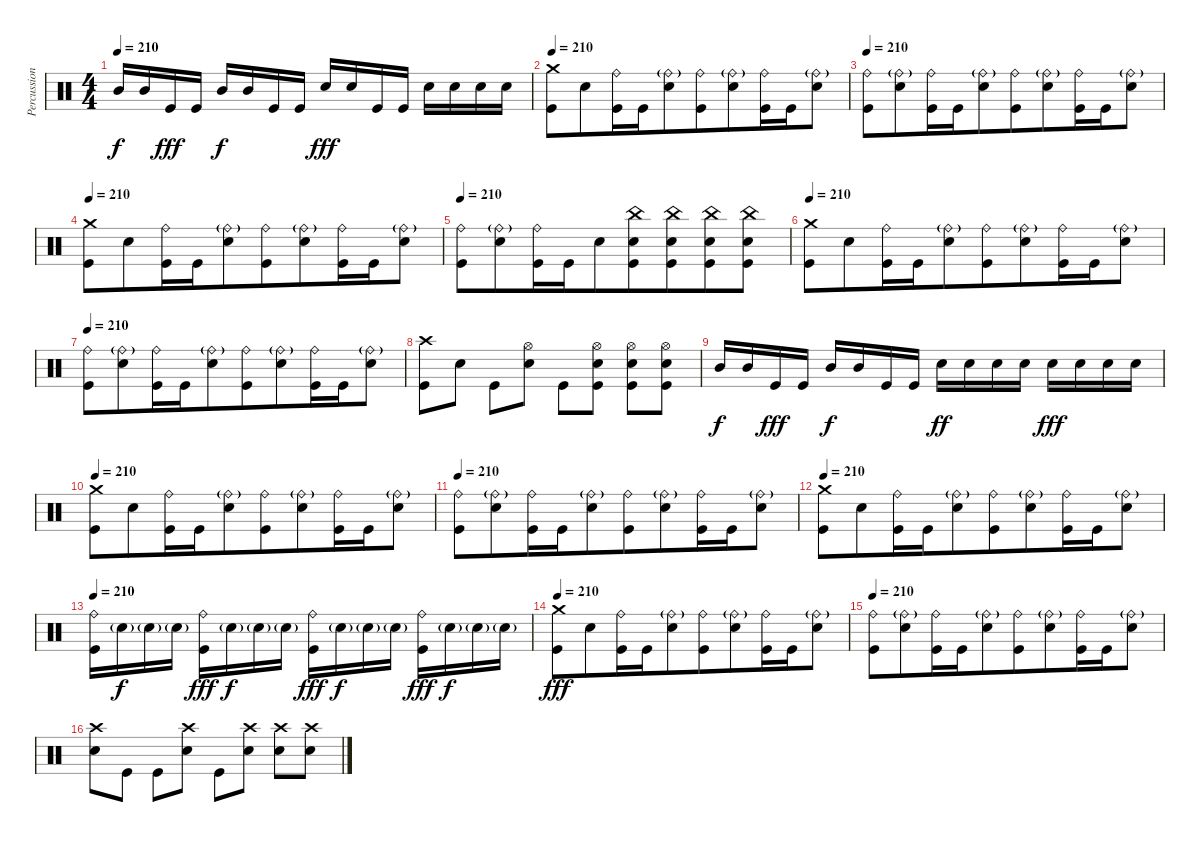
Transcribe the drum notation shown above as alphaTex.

\track ("Percussion" "Percussion") {instrument percussion}
\staff {score}
\articulation defaults
\ts (4 4)
\tempo 210
\clef neutral
\ks c "Mid Tom (hit)".16{dy f} "Mid Tom (hit)".16 "Kick (hit)".16{dy fff} "Kick (hit)".16 "Mid Tom (hit)".16{dy f} "Mid Tom (hit)".16 "Kick (hit)".16 "Kick (hit)".16 "Snare (hit) 2".16{dy fff} "Snare (hit) 2".16 "Kick (hit)".16 "Kick (hit)".16 "Snare (hit) 2".16 "Snare (hit) 2".16 "Snare (hit) 2".16 "Snare (hit) 2".16
|
\tempo 210
("Crash medium (hit)" "Kick (hit)").8 "Snare (hit) 2".8{beam merge} ("Ride (bell)" "Kick (hit)").16 "Kick (hit)".16 ("Ride (bell)"{g} "Snare (hit) 2").8{beam merge} ("Ride (bell)" "Kick (hit)").8 ("Ride (bell)"{g} "Snare (hit) 2").8{beam merge} ("Ride (bell)" "Kick (hit)").16 "Kick (hit)".16 ("Ride (bell)"{g} "Snare (hit) 2").8 |
\tempo 210
("Ride (bell)" "Kick (hit)").8 ("Ride (bell)"{g} "Snare (hit) 2").8{beam merge} ("Ride (bell)" "Kick (hit)").16 "Kick (hit)".16 ("Ride (bell)"{g} "Snare (hit) 2").8{beam merge} ("Ride (bell)" "Kick (hit)").8 ("Ride (bell)"{g} "Snare (hit) 2").8{beam merge} ("Ride (bell)" "Kick (hit)").16 "Kick (hit)".16 ("Ride (bell)"{g} "Snare (hit) 2").8 |
\tempo 210
("Crash medium (hit)" "Kick (hit)").8 "Snare (hit) 2".8{beam merge} ("Ride (bell)" "Kick (hit)").16 "Kick (hit)".16 ("Ride (bell)"{g} "Snare (hit) 2").8{beam merge} ("Ride (bell)" "Kick (hit)").8 ("Ride (bell)"{g} "Snare (hit) 2").8{beam merge} ("Ride (bell)" "Kick (hit)").16 "Kick (hit)".16 ("Ride (bell)"{g} "Snare (hit) 2").8 |
\tempo 210
("Ride (bell)" "Kick (hit)").8 ("Ride (bell)"{g} "Snare (hit) 2").8{beam merge} ("Ride (bell)" "Kick (hit)").16 "Kick (hit)".16 "Snare (hit) 2".8{beam merge} ("China (hit)" "Snare (hit) 2" "Kick (hit)").8 ("China (hit)" "Snare (hit) 2" "Kick (hit)").8{beam merge} ("China (hit)" "Snare (hit) 2" "Kick (hit)").8 ("China (hit)" "Snare (hit) 2" "Kick (hit)").8 |
\tempo 210
("Crash medium (hit)" "Kick (hit)").8 "Snare (hit) 2".8{beam merge} ("Ride (bell)" "Kick (hit)").16 "Kick (hit)".16 ("Ride (bell)"{g} "Snare (hit) 2").8{beam merge} ("Ride (bell)" "Kick (hit)").8 ("Ride (bell)"{g} "Snare (hit) 2").8{beam merge} ("Ride (bell)" "Kick (hit)").16 "Kick (hit)".16 ("Ride (bell)"{g} "Snare (hit) 2").8 |
\tempo 210
("Ride (bell)" "Kick (hit)").8 ("Ride (bell)"{g} "Snare (hit) 2").8{beam merge} ("Ride (bell)" "Kick (hit)").16 "Kick (hit)".16 ("Ride (bell)"{g} "Snare (hit) 2").8{beam merge} ("Ride (bell)" "Kick (hit)").8 ("Ride (bell)"{g} "Snare (hit) 2").8{beam merge} ("Ride (bell)" "Kick (hit)").16 "Kick (hit)".16 ("Ride (bell)"{g} "Snare (hit) 2").8 |
("Crash high (hit)" "Kick (hit)").8 "Snare (hit) 2".8 "Kick (hit)".8 ("Hi-Hat (open)" "Snare (hit) 2").8 "Kick (hit)".8 ("Hi-Hat (open)" "Snare (hit) 2" "Kick (hit)").8 ("Hi-Hat (open)" "Snare (hit) 2" "Kick (hit)").8 ("Hi-Hat (open)" "Snare (hit) 2" "Kick (hit)").8 |
"Mid Tom (hit)".16{dy f} "Mid Tom (hit)".16 "Kick (hit)".16{dy fff} "Kick (hit)".16 "Mid Tom (hit)".16{dy f} "Mid Tom (hit)".16 "Kick (hit)".16 "Kick (hit)".16 "Snare (hit) 2".16{dy ff} "Snare (hit) 2".16 "Snare (hit) 2".16 "Snare (hit) 2".16 "Snare (hit) 2".16{dy fff} "Snare (hit) 2".16 "Snare (hit) 2".16 "Snare (hit) 2".16 |
\tempo 210
("Crash medium (hit)" "Kick (hit)").8 "Snare (hit) 2".8{beam merge} ("Ride (bell)" "Kick (hit)").16 "Kick (hit)".16 ("Ride (bell)"{g} "Snare (hit) 2").8{beam merge} ("Ride (bell)" "Kick (hit)").8 ("Ride (bell)"{g} "Snare (hit) 2").8{beam merge} ("Ride (bell)" "Kick (hit)").16 "Kick (hit)".16 ("Ride (bell)"{g} "Snare (hit) 2").8 |
\tempo 210
("Ride (bell)" "Kick (hit)").8 ("Ride (bell)"{g} "Snare (hit) 2").8{beam merge} ("Ride (bell)" "Kick (hit)").16 "Kick (hit)".16 ("Ride (bell)"{g} "Snare (hit) 2").8{beam merge} ("Ride (bell)" "Kick (hit)").8 ("Ride (bell)"{g} "Snare (hit) 2").8{beam merge} ("Ride (bell)" "Kick (hit)").16 "Kick (hit)".16 ("Ride (bell)"{g} "Snare (hit) 2").8 |
\tempo 210
("Crash medium (hit)" "Kick (hit)").8 "Snare (hit) 2".8{beam merge} ("Ride (bell)" "Kick (hit)").16 "Kick (hit)".16 ("Ride (bell)"{g} "Snare (hit) 2").8{beam merge} ("Ride (bell)" "Kick (hit)").8 ("Ride (bell)"{g} "Snare (hit) 2").8{beam merge} ("Ride (bell)" "Kick (hit)").16 "Kick (hit)".16 ("Ride (bell)"{g} "Snare (hit) 2").8 |
\tempo 210
("Ride (bell)" "Kick (hit)").16 "Snare (hit) 2"{g}.16{dy f} "Snare (hit) 2"{g}.16 "Snare (hit) 2"{g}.16 ("Ride (bell)" "Kick (hit)").16{dy fff} "Snare (hit) 2"{g}.16{dy f} "Snare (hit) 2"{g}.16 "Snare (hit) 2"{g}.16 ("Ride (bell)" "Kick (hit)").16{dy fff} "Snare (hit) 2"{g}.16{dy f} "Snare (hit) 2"{g}.16 "Snare (hit) 2"{g}.16 ("Ride (bell)" "Kick (hit)").16{dy fff} "Snare (hit) 2"{g}.16{dy f} "Snare (hit) 2"{g}.16 "Snare (hit) 2"{g}.16 |
\tempo 210
("Crash medium (hit)" "Kick (hit)").8{dy fff} "Snare (hit) 2".8{beam merge} ("Ride (bell)" "Kick (hit)").16 "Kick (hit)".16 ("Ride (bell)"{g} "Snare (hit) 2").8{beam merge} ("Ride (bell)" "Kick (hit)").8 ("Ride (bell)"{g} "Snare (hit) 2").8{beam merge} ("Ride (bell)" "Kick (hit)").16 "Kick (hit)".16 ("Ride (bell)"{g} "Snare (hit) 2").8 |
\tempo 210
("Ride (bell)" "Kick (hit)").8 ("Ride (bell)"{g} "Snare (hit) 2").8{beam merge} ("Ride (bell)" "Kick (hit)").16 "Kick (hit)".16 ("Ride (bell)"{g} "Snare (hit) 2").8{beam merge} ("Ride (bell)" "Kick (hit)").8 ("Ride (bell)"{g} "Snare (hit) 2").8{beam merge} ("Ride (bell)" "Kick (hit)").16 "Kick (hit)".16 ("Ride (bell)"{g} "Snare (hit) 2").8 |
("Crash high (hit)" "Snare (hit) 2").8 "Kick (hit)".8 "Kick (hit)".8 ("Crash high (hit)" "Snare (hit) 2").8 "Kick (hit)".8 ("Crash high (hit)" "Snare (hit) 2").8 ("Crash high (hit)" "Snare (hit) 2").8 ("Crash high (hit)" "Snare (hit) 2").8
